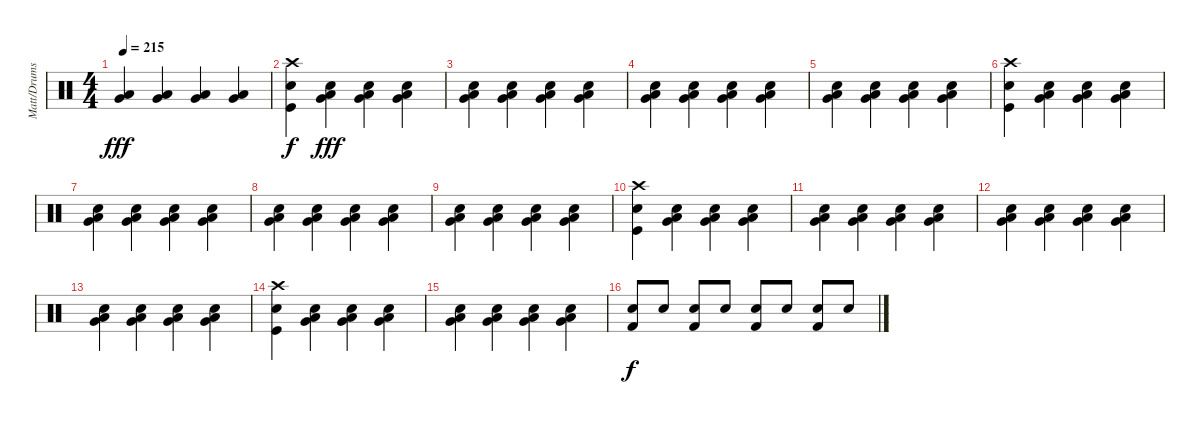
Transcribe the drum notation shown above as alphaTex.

\track ("Matt/Drums" "Matt/Drums") {instrument percussion}
\staff {score}
\articulation defaults
\ts (4 4)
\tempo 215
\clef neutral
\ks c
("Low Tom (hit)" "Very Low Tom (hit)").4{dy fff} ("Low Tom (hit)" "Very Low Tom (hit)").4 ("Low Tom (hit)" "Very Low Tom (hit)").4 ("Low Tom (hit)" "Very Low Tom (hit)").4 |
("Crash high (hit)" "Kick (hit)" "Electric Snare (hit)").4{dy f} ("Electric Snare (hit)" "Low Tom (hit)" "Very Low Tom (hit)").4{dy fff} ("Electric Snare (hit)" "Low Tom (hit)" "Very Low Tom (hit)").4 ("Electric Snare (hit)" "Low Tom (hit)" "Very Low Tom (hit)").4 |
("Electric Snare (hit)" "Low Tom (hit)" "Very Low Tom (hit)").4 ("Electric Snare (hit)" "Low Tom (hit)" "Very Low Tom (hit)").4 ("Electric Snare (hit)" "Low Tom (hit)" "Very Low Tom (hit)").4 ("Electric Snare (hit)" "Low Tom (hit)" "Very Low Tom (hit)").4 |
("Electric Snare (hit)" "Low Tom (hit)" "Very Low Tom (hit)").4 ("Electric Snare (hit)" "Low Tom (hit)" "Very Low Tom (hit)").4 ("Electric Snare (hit)" "Low Tom (hit)" "Very Low Tom (hit)").4 ("Electric Snare (hit)" "Low Tom (hit)" "Very Low Tom (hit)").4 |
("Electric Snare (hit)" "Low Tom (hit)" "Very Low Tom (hit)").4 ("Electric Snare (hit)" "Low Tom (hit)" "Very Low Tom (hit)").4 ("Electric Snare (hit)" "Low Tom (hit)" "Very Low Tom (hit)").4 ("Electric Snare (hit)" "Low Tom (hit)" "Very Low Tom (hit)").4 |
("Crash high (hit)" "Kick (hit)" "Electric Snare (hit)").4 ("Electric Snare (hit)" "Low Tom (hit)" "Very Low Tom (hit)").4 ("Electric Snare (hit)" "Low Tom (hit)" "Very Low Tom (hit)").4 ("Electric Snare (hit)" "Low Tom (hit)" "Very Low Tom (hit)").4 |
("Electric Snare (hit)" "Low Tom (hit)" "Very Low Tom (hit)").4 ("Electric Snare (hit)" "Low Tom (hit)" "Very Low Tom (hit)").4 ("Electric Snare (hit)" "Low Tom (hit)" "Very Low Tom (hit)").4 ("Electric Snare (hit)" "Low Tom (hit)" "Very Low Tom (hit)").4 |
("Electric Snare (hit)" "Low Tom (hit)" "Very Low Tom (hit)").4 ("Electric Snare (hit)" "Low Tom (hit)" "Very Low Tom (hit)").4 ("Electric Snare (hit)" "Low Tom (hit)" "Very Low Tom (hit)").4 ("Electric Snare (hit)" "Low Tom (hit)" "Very Low Tom (hit)").4 |
("Electric Snare (hit)" "Low Tom (hit)" "Very Low Tom (hit)").4 ("Electric Snare (hit)" "Low Tom (hit)" "Very Low Tom (hit)").4 ("Electric Snare (hit)" "Low Tom (hit)" "Very Low Tom (hit)").4 ("Electric Snare (hit)" "Low Tom (hit)" "Very Low Tom (hit)").4 |
("Crash high (hit)" "Kick (hit)" "Electric Snare (hit)").4 ("Electric Snare (hit)" "Low Tom (hit)" "Very Low Tom (hit)").4 ("Electric Snare (hit)" "Low Tom (hit)" "Very Low Tom (hit)").4 ("Electric Snare (hit)" "Low Tom (hit)" "Very Low Tom (hit)").4 |
("Electric Snare (hit)" "Low Tom (hit)" "Very Low Tom (hit)").4 ("Electric Snare (hit)" "Low Tom (hit)" "Very Low Tom (hit)").4 ("Electric Snare (hit)" "Low Tom (hit)" "Very Low Tom (hit)").4 ("Electric Snare (hit)" "Low Tom (hit)" "Very Low Tom (hit)").4 |
("Electric Snare (hit)" "Low Tom (hit)" "Very Low Tom (hit)").4 ("Electric Snare (hit)" "Low Tom (hit)" "Very Low Tom (hit)").4 ("Electric Snare (hit)" "Low Tom (hit)" "Very Low Tom (hit)").4 ("Electric Snare (hit)" "Low Tom (hit)" "Very Low Tom (hit)").4 |
("Electric Snare (hit)" "Low Tom (hit)" "Very Low Tom (hit)").4 ("Electric Snare (hit)" "Low Tom (hit)" "Very Low Tom (hit)").4 ("Electric Snare (hit)" "Low Tom (hit)" "Very Low Tom (hit)").4 ("Electric Snare (hit)" "Low Tom (hit)" "Very Low Tom (hit)").4 |
("Crash high (hit)" "Kick (hit)" "Electric Snare (hit)").4 ("Electric Snare (hit)" "Low Tom (hit)" "Very Low Tom (hit)").4 ("Electric Snare (hit)" "Low Tom (hit)" "Very Low Tom (hit)").4 ("Electric Snare (hit)" "Low Tom (hit)" "Very Low Tom (hit)").4 |
("Electric Snare (hit)" "Low Tom (hit)" "Very Low Tom (hit)").4 ("Electric Snare (hit)" "Low Tom (hit)" "Very Low Tom (hit)").4 ("Electric Snare (hit)" "Low Tom (hit)" "Very Low Tom (hit)").4 ("Electric Snare (hit)" "Low Tom (hit)" "Very Low Tom (hit)").4 |
("Electric Snare (hit)" "Kick (hit) 2").8{dy f} "Electric Snare (hit)".8 ("Electric Snare (hit)" "Kick (hit) 2").8 "Electric Snare (hit)".8 ("Electric Snare (hit)" "Kick (hit) 2").8 "Electric Snare (hit)".8 ("Electric Snare (hit)" "Kick (hit) 2").8 "Electric Snare (hit)".8
